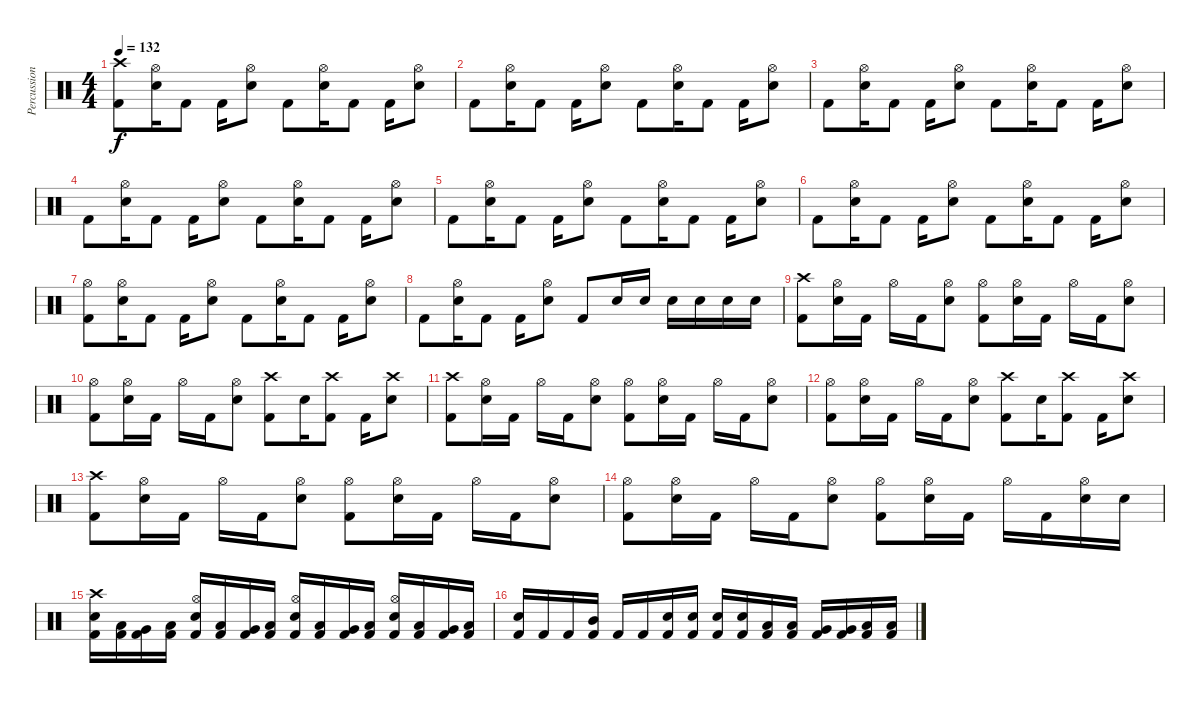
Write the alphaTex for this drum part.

\track ("Percussion" "Percussion") {instrument percussion}
\staff {score}
\articulation defaults
\ts (4 4)
\tempo 132
\clef neutral
\ks c
("Crash high (hit)" "Kick (hit) 2").8{dy f} ("Hi-Hat (open)" "Snare (hit) 2").16 "Kick (hit) 2".8 "Kick (hit) 2".16 ("Hi-Hat (open)" "Snare (hit) 2").8 "Kick (hit) 2".8 ("Hi-Hat (open)" "Snare (hit) 2").16 "Kick (hit) 2".8 "Kick (hit) 2".16 ("Hi-Hat (open)" "Snare (hit) 2").8 |
"Kick (hit) 2".8 ("Hi-Hat (open)" "Snare (hit) 2").16 "Kick (hit) 2".8 "Kick (hit) 2".16 ("Hi-Hat (open)" "Snare (hit) 2").8 "Kick (hit) 2".8 ("Hi-Hat (open)" "Snare (hit) 2").16 "Kick (hit) 2".8 "Kick (hit) 2".16 ("Hi-Hat (open)" "Snare (hit) 2").8 |
"Kick (hit) 2".8 ("Hi-Hat (open)" "Snare (hit) 2").16 "Kick (hit) 2".8 "Kick (hit) 2".16 ("Hi-Hat (open)" "Snare (hit) 2").8 "Kick (hit) 2".8 ("Hi-Hat (open)" "Snare (hit) 2").16 "Kick (hit) 2".8 "Kick (hit) 2".16 ("Hi-Hat (open)" "Snare (hit) 2").8 |
"Kick (hit) 2".8 ("Hi-Hat (open)" "Snare (hit) 2").16 "Kick (hit) 2".8 "Kick (hit) 2".16 ("Hi-Hat (open)" "Snare (hit) 2").8 "Kick (hit) 2".8 ("Hi-Hat (open)" "Snare (hit) 2").16 "Kick (hit) 2".8 "Kick (hit) 2".16 ("Hi-Hat (open)" "Snare (hit) 2").8 |
"Kick (hit) 2".8 ("Hi-Hat (open)" "Snare (hit) 2").16 "Kick (hit) 2".8 "Kick (hit) 2".16 ("Hi-Hat (open)" "Snare (hit) 2").8 "Kick (hit) 2".8 ("Hi-Hat (open)" "Snare (hit) 2").16 "Kick (hit) 2".8 "Kick (hit) 2".16 ("Hi-Hat (open)" "Snare (hit) 2").8 |
"Kick (hit) 2".8 ("Hi-Hat (open)" "Snare (hit) 2").16 "Kick (hit) 2".8 "Kick (hit) 2".16 ("Hi-Hat (open)" "Snare (hit) 2").8 "Kick (hit) 2".8 ("Hi-Hat (open)" "Snare (hit) 2").16 "Kick (hit) 2".8 "Kick (hit) 2".16 ("Hi-Hat (open)" "Snare (hit) 2").8 |
("Hi-Hat (open)" "Kick (hit) 2").8 ("Hi-Hat (open)" "Snare (hit) 2").16 "Kick (hit) 2".8 "Kick (hit) 2".16 ("Hi-Hat (open)" "Snare (hit) 2").8 "Kick (hit) 2".8 ("Hi-Hat (open)" "Snare (hit) 2").16 "Kick (hit) 2".8 "Kick (hit) 2".16 ("Hi-Hat (open)" "Snare (hit) 2").8 |
"Kick (hit) 2".8 ("Hi-Hat (open)" "Snare (hit) 2").16 "Kick (hit) 2".8 "Kick (hit) 2".16 ("Hi-Hat (open)" "Snare (hit) 2").8 "Kick (hit) 2".8 "Snare (hit) 2".16 "Snare (hit) 2".16 "Snare (hit) 2".16 "Snare (hit) 2".16 "Snare (hit) 2".16 "Snare (hit) 2".16 |
("Crash high (hit)" "Kick (hit) 2").8 ("Hi-Hat (open)" "Snare (hit) 2").16 "Kick (hit) 2".16 "Hi-Hat (open)".16 "Kick (hit) 2".16 ("Hi-Hat (open)" "Snare (hit) 2").8 ("Hi-Hat (open)" "Kick (hit) 2").8 ("Hi-Hat (open)" "Snare (hit) 2").16 "Kick (hit) 2".16 "Hi-Hat (open)".16 "Kick (hit) 2".16 ("Hi-Hat (open)" "Snare (hit) 2").8 |
("Hi-Hat (open)" "Kick (hit) 2").8 ("Hi-Hat (open)" "Snare (hit) 2").16 "Kick (hit) 2".16 "Hi-Hat (open)".16 "Kick (hit) 2".16 ("Hi-Hat (open)" "Snare (hit) 2").8 ("Crash high (hit)" "Kick (hit) 2").8 "Snare (hit) 2".16 ("Crash high (hit)" "Kick (hit) 2").8 "Kick (hit) 2".16 ("Crash high (hit)" "Snare (hit) 2").8 |
("Crash high (hit)" "Kick (hit) 2").8 ("Hi-Hat (open)" "Snare (hit) 2").16 "Kick (hit) 2".16 "Hi-Hat (open)".16 "Kick (hit) 2".16 ("Hi-Hat (open)" "Snare (hit) 2").8 ("Hi-Hat (open)" "Kick (hit) 2").8 ("Hi-Hat (open)" "Snare (hit) 2").16 "Kick (hit) 2".16 "Hi-Hat (open)".16 "Kick (hit) 2".16 ("Hi-Hat (open)" "Snare (hit) 2").8 |
("Hi-Hat (open)" "Kick (hit) 2").8 ("Hi-Hat (open)" "Snare (hit) 2").16 "Kick (hit) 2".16 "Hi-Hat (open)".16 "Kick (hit) 2".16 ("Hi-Hat (open)" "Snare (hit) 2").8 ("Crash high (hit)" "Kick (hit) 2").8 "Snare (hit) 2".16 ("Crash high (hit)" "Kick (hit) 2").8 "Kick (hit) 2".16 ("Crash high (hit)" "Snare (hit) 2").8 |
("Crash high (hit)" "Kick (hit) 2").8 ("Hi-Hat (open)" "Snare (hit) 2").16 "Kick (hit) 2".16 "Hi-Hat (open)".16 "Kick (hit) 2".16 ("Hi-Hat (open)" "Snare (hit) 2").8 ("Hi-Hat (open)" "Kick (hit) 2").8 ("Hi-Hat (open)" "Snare (hit) 2").16 "Kick (hit) 2".16 "Hi-Hat (open)".16 "Kick (hit) 2".16 ("Hi-Hat (open)" "Snare (hit) 2").8 |
("Hi-Hat (open)" "Kick (hit) 2").8 ("Hi-Hat (open)" "Snare (hit) 2").16 "Kick (hit) 2".16 "Hi-Hat (open)".16 "Kick (hit) 2".16 ("Hi-Hat (open)" "Snare (hit) 2").8 ("Hi-Hat (open)" "Kick (hit) 2").8 ("Hi-Hat (open)" "Snare (hit) 2").16 "Kick (hit) 2".16 "Hi-Hat (open)".16 "Kick (hit) 2".16 ("Hi-Hat (open)" "Snare (hit) 2").16 "Snare (hit) 2".16 |
("Crash high (hit)" "Snare (hit) 2" "Kick (hit) 2").16 ("Low Tom (hit)" "Kick (hit) 2").16 ("Very Low Tom (hit)" "Kick (hit) 2").16 ("Low Floor Tom (hit)" "Kick (hit) 2").16 ("Hi-Hat (open)" "Snare (hit) 2" "Kick (hit) 2").16 ("Low Tom (hit)" "Kick (hit) 2").16 ("Very Low Tom (hit)" "Kick (hit) 2").16 ("Low Floor Tom (hit)" "Kick (hit) 2").16 ("Hi-Hat (open)" "Snare (hit) 2" "Kick (hit) 2").16 ("Low Tom (hit)" "Kick (hit) 2").16 ("Very Low Tom (hit)" "Kick (hit) 2").16 ("Low Floor Tom (hit)" "Kick (hit) 2").16 ("Hi-Hat (open)" "Snare (hit) 2" "Kick (hit) 2").16 ("Low Tom (hit)" "Kick (hit) 2").16 ("Very Low Tom (hit)" "Kick (hit) 2").16 ("Low Floor Tom (hit)" "Kick (hit) 2").16 |
("Snare (hit) 2" "Kick (hit) 2").16 "Kick (hit) 2".16 "Kick (hit) 2".16 ("Mid Tom (hit)" "Kick (hit) 2").16 "Kick (hit) 2".16 "Kick (hit) 2".16 ("Snare (hit) 2" "Kick (hit) 2").16 ("Snare (hit) 2" "Kick (hit) 2").16 ("Snare (hit) 2" "Kick (hit) 2").16 ("Snare (hit) 2" "Kick (hit) 2").16 ("Low Tom (hit)" "Kick (hit) 2").16 ("Low Tom (hit)" "Kick (hit) 2").16 ("Very Low Tom (hit)" "Kick (hit) 2").16 ("Very Low Tom (hit)" "Kick (hit) 2").16 ("Low Floor Tom (hit)" "Kick (hit) 2").16 ("Low Floor Tom (hit)" "Kick (hit) 2").16
